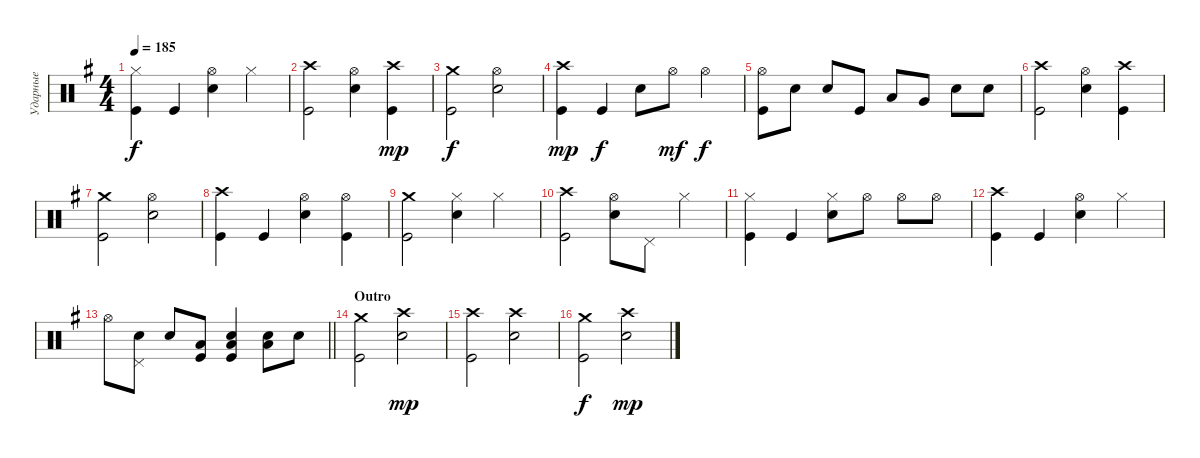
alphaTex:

\track ("Ударные" "Ударные") {instrument percussion}
\staff {score}
\articulation defaults
\ts (4 4)
\tempo 185
\clef neutral
\ks eminor
("Kick (hit)" "Hi-Hat (closed)").4{dy f} "Kick (hit)".4 ("Snare (hit) 2" "Hi-Hat (open)").4 "Hi-Hat (closed)".4 |
("Kick (hit)" "Crash high (hit)").2 ("Snare (hit) 2" "Hi-Hat (open)").4 ("Kick (hit)" "Crash high (hit)").4{dy mp} |
("Kick (hit)" "Crash medium (hit)").2{dy f} ("Snare (hit) 2" "Hi-Hat (open)").2 |
("Kick (hit)" "Crash high (hit)").4{dy mp} "Kick (hit)".4{dy f} "Snare (hit) 2".8 "Hi-Hat (open)".8{dy mf} "Hi-Hat (open)".4{dy f} |
("Kick (hit)" "Hi-Hat (open)").8 "Snare (hit) 2".8 "Snare (hit) 2".8 "Kick (hit)".8 "Low Tom (hit)".8 "Very Low Tom (hit)".8 "Snare (hit) 2".8 "Snare (hit) 2".8 |
("Kick (hit)" "Crash high (hit)").2 ("Snare (hit) 2" "Hi-Hat (open)").4 ("Kick (hit)" "Crash high (hit)").4 |
("Kick (hit)" "Crash medium (hit)").2 ("Snare (hit) 2" "Hi-Hat (open)").2 |
("Kick (hit)" "Crash high (hit)").4 "Kick (hit)".4 ("Snare (hit) 2" "Hi-Hat (open)").4 ("Kick (hit)" "Hi-Hat (open)").4 |
("Kick (hit)" "Crash medium (hit)").2 ("Snare (hit) 2" "Hi-Hat (closed)").4 "Hi-Hat (closed)".4 |
("Kick (hit)" "Crash high (hit)").2 ("Snare (hit) 2" "Hi-Hat (open)").8 "Pedal Hi-Hat (hit)".8 "Hi-Hat (closed)".4 |
("Kick (hit)" "Hi-Hat (closed)").4 "Kick (hit)".4 ("Hi-Hat (closed)" "Snare (hit) 2").8 "Hi-Hat (open)".8 "Hi-Hat (open)".8 "Hi-Hat (open)".8 |
("Kick (hit)" "Crash high (hit)").4 "Kick (hit)".4 ("Hi-Hat (open)" "Snare (hit) 2").4 "Hi-Hat (closed)".4 |
\barLineRight lightlight "Hi-Hat (open)".8
("Pedal Hi-Hat (hit)" "Snare (hit) 2").8 "Snare (hit) 2".8 ("Low Tom (hit)" "Kick (hit)").8 ("Low Tom (hit)" "Snare (hit) 2" "Kick (hit)").4{bd 60} ("Low Tom (hit)" "Snare (hit) 2").8{bd 120} "Snare (hit) 2".8 |
\section ("" "Outro")
("Kick (hit)" "Crash medium (hit)").2 ("Crash high (hit)" "Snare (hit) 2").2{dy mp} |
("Crash high (hit)" "Kick (hit)").2 ("Crash high (hit)" "Snare (hit) 2").2 |
("Kick (hit)" "Crash medium (hit)").2{dy f} ("Crash high (hit)" "Snare (hit) 2").2{dy mp}
